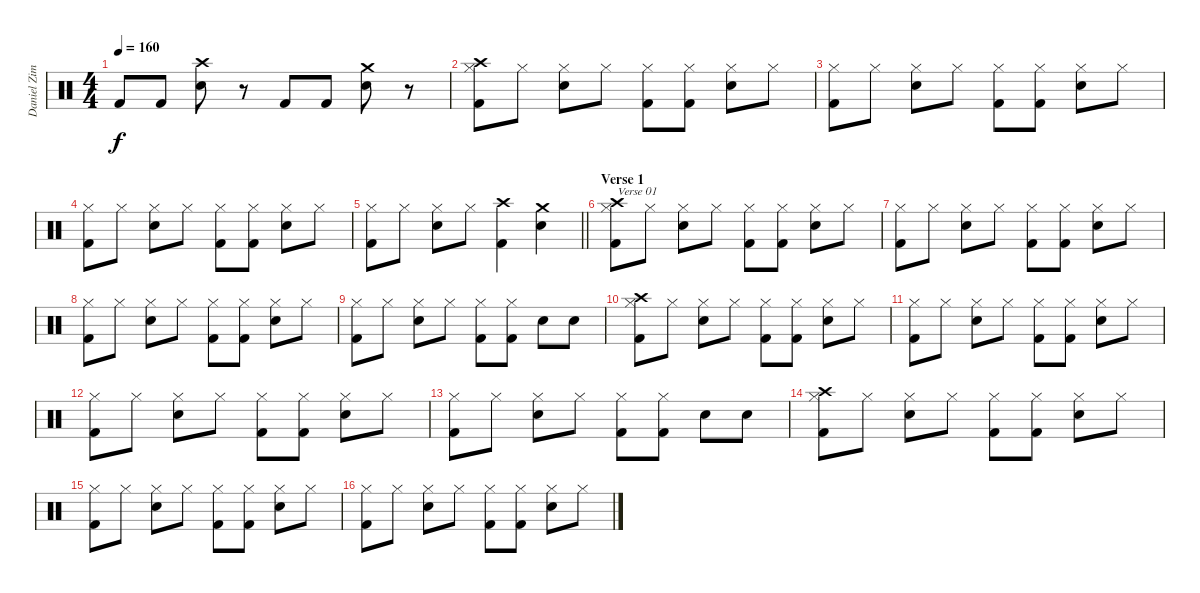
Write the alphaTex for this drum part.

\track ("Daniel Zimmermann" "Daniel Zim") {instrument percussion}
\staff {score}
\articulation defaults
\ts (4 4)
\tempo 160
\clef neutral
\ks c "Kick (hit) 2".8{dy f} "Kick (hit) 2".8
("Snare (hit) 2" "Crash high (hit)").8 r.8 "Kick (hit) 2".8 "Kick (hit) 2".8 ("Snare (hit) 2" "Crash medium (hit)").8 r.8 |
("Hi-Hat (closed)" "Kick (hit) 2" "Crash high (hit)").8 "Hi-Hat (closed)".8 ("Hi-Hat (closed)" "Snare (hit) 2").8 "Hi-Hat (closed)".8 ("Hi-Hat (closed)" "Kick (hit) 2").8 ("Hi-Hat (closed)" "Kick (hit) 2").8 ("Hi-Hat (closed)" "Snare (hit) 2").8 "Hi-Hat (closed)".8 |
("Hi-Hat (closed)" "Kick (hit) 2").8 "Hi-Hat (closed)".8 ("Hi-Hat (closed)" "Snare (hit) 2").8 "Hi-Hat (closed)".8 ("Hi-Hat (closed)" "Kick (hit) 2").8 ("Hi-Hat (closed)" "Kick (hit) 2").8 ("Hi-Hat (closed)" "Snare (hit) 2").8 "Hi-Hat (closed)".8 |
("Hi-Hat (closed)" "Kick (hit) 2").8 "Hi-Hat (closed)".8 ("Hi-Hat (closed)" "Snare (hit) 2").8 "Hi-Hat (closed)".8 ("Hi-Hat (closed)" "Kick (hit) 2").8 ("Hi-Hat (closed)" "Kick (hit) 2").8 ("Hi-Hat (closed)" "Snare (hit) 2").8 "Hi-Hat (closed)".8 |
\barLineRight lightlight
("Hi-Hat (closed)" "Kick (hit) 2").8 "Hi-Hat (closed)".8 ("Hi-Hat (closed)" "Snare (hit) 2").8 "Hi-Hat (closed)".8 ("Kick (hit) 2" "Crash high (hit)").4 ("Snare (hit) 2" "Crash medium (hit)").4 |
\section ("" "Verse 1")
("Hi-Hat (closed)" "Kick (hit) 2" "Crash high (hit)").8{txt "Verse 01"} "Hi-Hat (closed)".8 ("Hi-Hat (closed)" "Snare (hit) 2").8 "Hi-Hat (closed)".8 ("Hi-Hat (closed)" "Kick (hit) 2").8 ("Hi-Hat (closed)" "Kick (hit) 2").8 ("Hi-Hat (closed)" "Snare (hit) 2").8 "Hi-Hat (closed)".8 |
("Hi-Hat (closed)" "Kick (hit) 2").8 "Hi-Hat (closed)".8 ("Hi-Hat (closed)" "Snare (hit) 2").8 "Hi-Hat (closed)".8 ("Hi-Hat (closed)" "Kick (hit) 2").8 ("Hi-Hat (closed)" "Kick (hit) 2").8 ("Hi-Hat (closed)" "Snare (hit) 2").8 "Hi-Hat (closed)".8 |
("Hi-Hat (closed)" "Kick (hit) 2").8 "Hi-Hat (closed)".8 ("Hi-Hat (closed)" "Snare (hit) 2").8 "Hi-Hat (closed)".8 ("Hi-Hat (closed)" "Kick (hit) 2").8 ("Hi-Hat (closed)" "Kick (hit) 2").8 ("Hi-Hat (closed)" "Snare (hit) 2").8 "Hi-Hat (closed)".8 |
("Hi-Hat (closed)" "Kick (hit) 2").8 "Hi-Hat (closed)".8 ("Hi-Hat (closed)" "Snare (hit) 2").8 "Hi-Hat (closed)".8 ("Hi-Hat (closed)" "Kick (hit) 2").8 ("Hi-Hat (closed)" "Kick (hit) 2").8 "Snare (hit) 2".8 "Snare (hit) 2".8 |
("Hi-Hat (closed)" "Kick (hit) 2" "Crash high (hit)").8 "Hi-Hat (closed)".8 ("Hi-Hat (closed)" "Snare (hit) 2").8 "Hi-Hat (closed)".8 ("Hi-Hat (closed)" "Kick (hit) 2").8 ("Hi-Hat (closed)" "Kick (hit) 2").8 ("Hi-Hat (closed)" "Snare (hit) 2").8 "Hi-Hat (closed)".8 |
("Hi-Hat (closed)" "Kick (hit) 2").8 "Hi-Hat (closed)".8 ("Hi-Hat (closed)" "Snare (hit) 2").8 "Hi-Hat (closed)".8 ("Hi-Hat (closed)" "Kick (hit) 2").8 ("Hi-Hat (closed)" "Kick (hit) 2").8 ("Hi-Hat (closed)" "Snare (hit) 2").8 "Hi-Hat (closed)".8 |
("Hi-Hat (closed)" "Kick (hit) 2").8 "Hi-Hat (closed)".8 ("Hi-Hat (closed)" "Snare (hit) 2").8 "Hi-Hat (closed)".8 ("Hi-Hat (closed)" "Kick (hit) 2").8 ("Hi-Hat (closed)" "Kick (hit) 2").8 ("Hi-Hat (closed)" "Snare (hit) 2").8 "Hi-Hat (closed)".8 |
("Hi-Hat (closed)" "Kick (hit) 2").8 "Hi-Hat (closed)".8 ("Hi-Hat (closed)" "Snare (hit) 2").8 "Hi-Hat (closed)".8 ("Hi-Hat (closed)" "Kick (hit) 2").8 ("Hi-Hat (closed)" "Kick (hit) 2").8 "Snare (hit) 2".8 "Snare (hit) 2".8 |
("Hi-Hat (closed)" "Kick (hit) 2" "Crash high (hit)").8 "Hi-Hat (closed)".8 ("Hi-Hat (closed)" "Snare (hit) 2").8 "Hi-Hat (closed)".8 ("Hi-Hat (closed)" "Kick (hit) 2").8 ("Hi-Hat (closed)" "Kick (hit) 2").8 ("Hi-Hat (closed)" "Snare (hit) 2").8 "Hi-Hat (closed)".8 |
("Hi-Hat (closed)" "Kick (hit) 2").8 "Hi-Hat (closed)".8 ("Hi-Hat (closed)" "Snare (hit) 2").8 "Hi-Hat (closed)".8 ("Hi-Hat (closed)" "Kick (hit) 2").8 ("Hi-Hat (closed)" "Kick (hit) 2").8 ("Hi-Hat (closed)" "Snare (hit) 2").8 "Hi-Hat (closed)".8 |
("Hi-Hat (closed)" "Kick (hit) 2").8 "Hi-Hat (closed)".8 ("Hi-Hat (closed)" "Snare (hit) 2").8 "Hi-Hat (closed)".8 ("Hi-Hat (closed)" "Kick (hit) 2").8 ("Hi-Hat (closed)" "Kick (hit) 2").8 ("Hi-Hat (closed)" "Snare (hit) 2").8 "Hi-Hat (closed)".8
